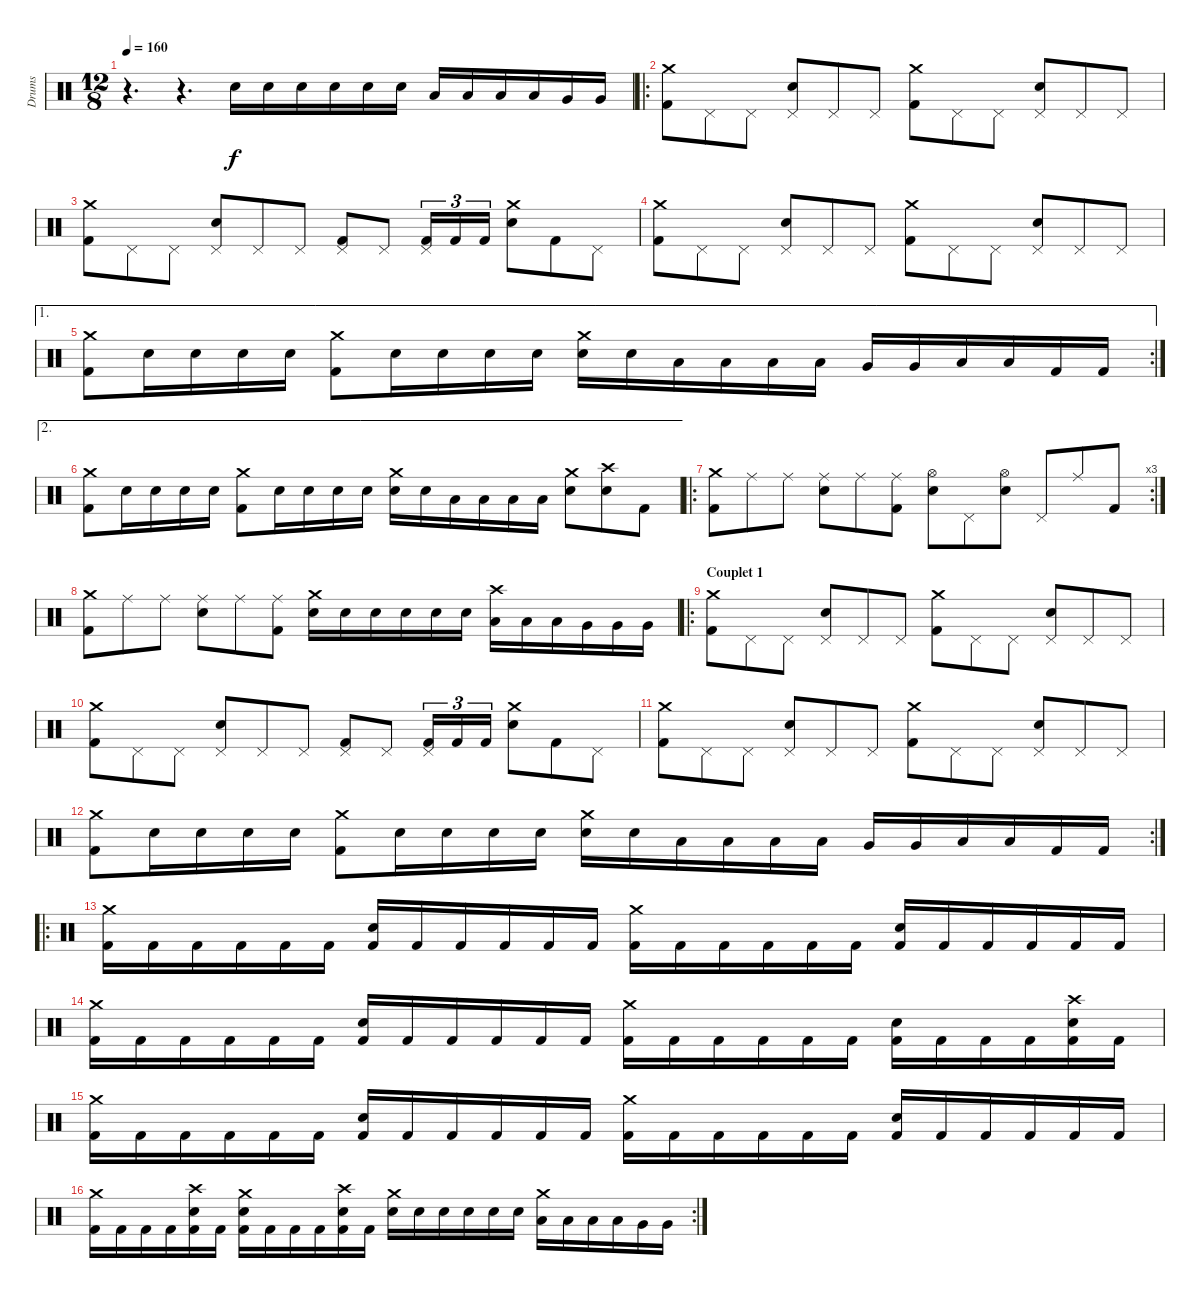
\track ("Drums" "Drums") {instrument percussion}
\staff {score}
\articulation defaults
\ts (12 8)
\tempo 160
\clef neutral
\ks c
r.4{d dy f} r.4{d} "Electric Snare (hit)".16 "Electric Snare (hit)".16 "Electric Snare (hit)".16 "Electric Snare (hit)".16 "Electric Snare (hit)".16 "Electric Snare (hit)".16 "Low Tom (hit)".16 "Low Tom (hit)".16 "Low Tom (hit)".16 "Low Tom (hit)".16 "Very Low Tom (hit)".16 "Very Low Tom (hit)".16 |
\ro
("Crash medium (hit)" "Kick (hit) 2").8 "Pedal Hi-Hat (hit)".8 "Pedal Hi-Hat (hit)".8 ("Pedal Hi-Hat (hit)" "Electric Snare (hit)").8 "Pedal Hi-Hat (hit)".8 "Pedal Hi-Hat (hit)".8 ("Crash medium (hit)" "Kick (hit) 2").8 "Pedal Hi-Hat (hit)".8 "Pedal Hi-Hat (hit)".8 ("Pedal Hi-Hat (hit)" "Electric Snare (hit)").8 "Pedal Hi-Hat (hit)".8 "Pedal Hi-Hat (hit)".8 |
("Crash medium (hit)" "Kick (hit) 2").8 "Pedal Hi-Hat (hit)".8 "Pedal Hi-Hat (hit)".8 ("Pedal Hi-Hat (hit)" "Electric Snare (hit)").8 "Pedal Hi-Hat (hit)".8 "Pedal Hi-Hat (hit)".8 ("Pedal Hi-Hat (hit)" "Kick (hit) 2").8 "Pedal Hi-Hat (hit)".8 ("Pedal Hi-Hat (hit)" "Kick (hit) 2").16{tu (3 2)} "Kick (hit) 2".16{tu (3 2)} "Kick (hit) 2".16{tu (3 2)} ("Crash medium (hit)" "Electric Snare (hit)").8 "Kick (hit) 2".8 "Pedal Hi-Hat (hit)".8 |
("Crash medium (hit)" "Kick (hit) 2").8 "Pedal Hi-Hat (hit)".8 "Pedal Hi-Hat (hit)".8 ("Pedal Hi-Hat (hit)" "Electric Snare (hit)").8 "Pedal Hi-Hat (hit)".8 "Pedal Hi-Hat (hit)".8 ("Crash medium (hit)" "Kick (hit) 2").8 "Pedal Hi-Hat (hit)".8 "Pedal Hi-Hat (hit)".8 ("Pedal Hi-Hat (hit)" "Electric Snare (hit)").8 "Pedal Hi-Hat (hit)".8 "Pedal Hi-Hat (hit)".8 |
\ae 1
\rc 2
("Crash medium (hit)" "Kick (hit) 2").8 "Electric Snare (hit)".16 "Electric Snare (hit)".16 "Electric Snare (hit)".16 "Electric Snare (hit)".16 ("Crash medium (hit)" "Kick (hit) 2").8 "Electric Snare (hit)".16 "Electric Snare (hit)".16 "Electric Snare (hit)".16 "Electric Snare (hit)".16 ("Crash medium (hit)" "Electric Snare (hit)").16 "Electric Snare (hit)".16 "Low Tom (hit)".16 "Low Tom (hit)".16 "Low Tom (hit)".16 "Low Tom (hit)".16 "Very Low Tom (hit)".16 "Very Low Tom (hit)".16 "Low Floor Tom (hit)".16 "Low Floor Tom (hit)".16 "Kick (hit) 2".16 "Kick (hit) 2".16 |
\ae 2
("Crash medium (hit)" "Kick (hit) 2").8 "Electric Snare (hit)".16 "Electric Snare (hit)".16 "Electric Snare (hit)".16 "Electric Snare (hit)".16 ("Crash medium (hit)" "Kick (hit) 2").8 "Electric Snare (hit)".16 "Electric Snare (hit)".16 "Electric Snare (hit)".16 "Electric Snare (hit)".16 ("Crash medium (hit)" "Electric Snare (hit)").16 "Electric Snare (hit)".16 "Low Tom (hit)".16 "Low Tom (hit)".16 "Low Tom (hit)".16 "Low Tom (hit)".16 ("Crash medium (hit)" "Electric Snare (hit)").8 ("Crash high (hit)" "Electric Snare (hit)").8 "Kick (hit) 2".8 |
\ro
\rc 3
("Crash medium (hit)" "Kick (hit) 2").8 "Ride (middle)".8 "Ride (middle)".8 ("Ride (middle)" "Electric Snare (hit)").8 "Ride (middle)".8 ("Ride (middle)" "Kick (hit) 2").8 ("Hi-Hat (open)" "Electric Snare (hit)").8 "Pedal Hi-Hat (hit)".8 ("Hi-Hat (open)" "Electric Snare (hit)").8 "Pedal Hi-Hat (hit)".8 "Ride (middle)".8 "Kick (hit) 2".8 |
("Crash medium (hit)" "Kick (hit) 2").8 "Ride (middle)".8 "Ride (middle)".8 ("Ride (middle)" "Electric Snare (hit)").8 "Ride (middle)".8 ("Ride (middle)" "Kick (hit) 2").8 ("Crash medium (hit)" "Electric Snare (hit)").16 "Electric Snare (hit)".16 "Electric Snare (hit)".16 "Electric Snare (hit)".16 "Electric Snare (hit)".16 "Electric Snare (hit)".16 ("Crash high (hit)" "Low Tom (hit)").16 "Low Tom (hit)".16 "Low Tom (hit)".16 "Very Low Tom (hit)".16 "Very Low Tom (hit)".16 "Very Low Tom (hit)".16 |
\ro
\section ("" "Couplet 1")
("Crash medium (hit)" "Kick (hit) 2").8 "Pedal Hi-Hat (hit)".8 "Pedal Hi-Hat (hit)".8 ("Pedal Hi-Hat (hit)" "Electric Snare (hit)").8 "Pedal Hi-Hat (hit)".8 "Pedal Hi-Hat (hit)".8 ("Crash medium (hit)" "Kick (hit) 2").8 "Pedal Hi-Hat (hit)".8 "Pedal Hi-Hat (hit)".8 ("Pedal Hi-Hat (hit)" "Electric Snare (hit)").8 "Pedal Hi-Hat (hit)".8 "Pedal Hi-Hat (hit)".8 |
("Crash medium (hit)" "Kick (hit) 2").8 "Pedal Hi-Hat (hit)".8 "Pedal Hi-Hat (hit)".8 ("Pedal Hi-Hat (hit)" "Electric Snare (hit)").8 "Pedal Hi-Hat (hit)".8 "Pedal Hi-Hat (hit)".8 ("Pedal Hi-Hat (hit)" "Kick (hit) 2").8 "Pedal Hi-Hat (hit)".8 ("Pedal Hi-Hat (hit)" "Kick (hit) 2").16{tu (3 2)} "Kick (hit) 2".16{tu (3 2)} "Kick (hit) 2".16{tu (3 2)} ("Crash medium (hit)" "Electric Snare (hit)").8 "Kick (hit) 2".8 "Pedal Hi-Hat (hit)".8 |
("Crash medium (hit)" "Kick (hit) 2").8 "Pedal Hi-Hat (hit)".8 "Pedal Hi-Hat (hit)".8 ("Pedal Hi-Hat (hit)" "Electric Snare (hit)").8 "Pedal Hi-Hat (hit)".8 "Pedal Hi-Hat (hit)".8 ("Crash medium (hit)" "Kick (hit) 2").8 "Pedal Hi-Hat (hit)".8 "Pedal Hi-Hat (hit)".8 ("Pedal Hi-Hat (hit)" "Electric Snare (hit)").8 "Pedal Hi-Hat (hit)".8 "Pedal Hi-Hat (hit)".8 |
\rc 2
("Crash medium (hit)" "Kick (hit) 2").8 "Electric Snare (hit)".16 "Electric Snare (hit)".16 "Electric Snare (hit)".16 "Electric Snare (hit)".16 ("Crash medium (hit)" "Kick (hit) 2").8 "Electric Snare (hit)".16 "Electric Snare (hit)".16 "Electric Snare (hit)".16 "Electric Snare (hit)".16 ("Crash medium (hit)" "Electric Snare (hit)").16 "Electric Snare (hit)".16 "Low Tom (hit)".16 "Low Tom (hit)".16 "Low Tom (hit)".16 "Low Tom (hit)".16 "Very Low Tom (hit)".16 "Very Low Tom (hit)".16 "Low Floor Tom (hit)".16 "Low Floor Tom (hit)".16 "Kick (hit) 2".16 "Kick (hit) 2".16 |
\ro
("Crash medium (hit)" "Kick (hit) 2").16 "Kick (hit) 2".16 "Kick (hit) 2".16 "Kick (hit) 2".16 "Kick (hit) 2".16 "Kick (hit) 2".16 ("Electric Snare (hit)" "Kick (hit) 2").16 "Kick (hit) 2".16 "Kick (hit) 2".16 "Kick (hit) 2".16 "Kick (hit) 2".16 "Kick (hit) 2".16 ("Crash medium (hit)" "Kick (hit) 2").16 "Kick (hit) 2".16 "Kick (hit) 2".16 "Kick (hit) 2".16 "Kick (hit) 2".16 "Kick (hit) 2".16 ("Electric Snare (hit)" "Kick (hit) 2").16 "Kick (hit) 2".16 "Kick (hit) 2".16 "Kick (hit) 2".16 "Kick (hit) 2".16 "Kick (hit) 2".16 |
("Crash medium (hit)" "Kick (hit) 2").16 "Kick (hit) 2".16 "Kick (hit) 2".16 "Kick (hit) 2".16 "Kick (hit) 2".16 "Kick (hit) 2".16 ("Electric Snare (hit)" "Kick (hit) 2").16 "Kick (hit) 2".16 "Kick (hit) 2".16 "Kick (hit) 2".16 "Kick (hit) 2".16 "Kick (hit) 2".16 ("Crash medium (hit)" "Kick (hit) 2").16 "Kick (hit) 2".16 "Kick (hit) 2".16 "Kick (hit) 2".16 "Kick (hit) 2".16 "Kick (hit) 2".16 ("Electric Snare (hit)" "Kick (hit) 2").16 "Kick (hit) 2".16 "Kick (hit) 2".16 "Kick (hit) 2".16 ("Crash high (hit)" "Electric Snare (hit)" "Kick (hit) 2").16 "Kick (hit) 2".16 |
("Crash medium (hit)" "Kick (hit) 2").16 "Kick (hit) 2".16 "Kick (hit) 2".16 "Kick (hit) 2".16 "Kick (hit) 2".16 "Kick (hit) 2".16 ("Electric Snare (hit)" "Kick (hit) 2").16 "Kick (hit) 2".16 "Kick (hit) 2".16 "Kick (hit) 2".16 "Kick (hit) 2".16 "Kick (hit) 2".16 ("Crash medium (hit)" "Kick (hit) 2").16 "Kick (hit) 2".16 "Kick (hit) 2".16 "Kick (hit) 2".16 "Kick (hit) 2".16 "Kick (hit) 2".16 ("Electric Snare (hit)" "Kick (hit) 2").16 "Kick (hit) 2".16 "Kick (hit) 2".16 "Kick (hit) 2".16 "Kick (hit) 2".16 "Kick (hit) 2".16 |
\rc 2
("Crash medium (hit)" "Kick (hit) 2").16 "Kick (hit) 2".16 "Kick (hit) 2".16 "Kick (hit) 2".16 ("Crash high (hit)" "Electric Snare (hit)" "Kick (hit) 2").16 "Kick (hit) 2".16 ("Crash medium (hit)" "Electric Snare (hit)" "Kick (hit) 2").16 "Kick (hit) 2".16 "Kick (hit) 2".16 "Kick (hit) 2".16 ("Crash high (hit)" "Electric Snare (hit)" "Kick (hit) 2").16 "Kick (hit) 2".16 ("Crash medium (hit)" "Electric Snare (hit)").16 "Electric Snare (hit)".16 "Electric Snare (hit)".16 "Electric Snare (hit)".16 "Electric Snare (hit)".16 "Electric Snare (hit)".16 ("Crash medium (hit)" "Low Tom (hit)").16 "Low Tom (hit)".16 "Low Tom (hit)".16 "Low Tom (hit)".16 "Very Low Tom (hit)".16 "Very Low Tom (hit)".16
